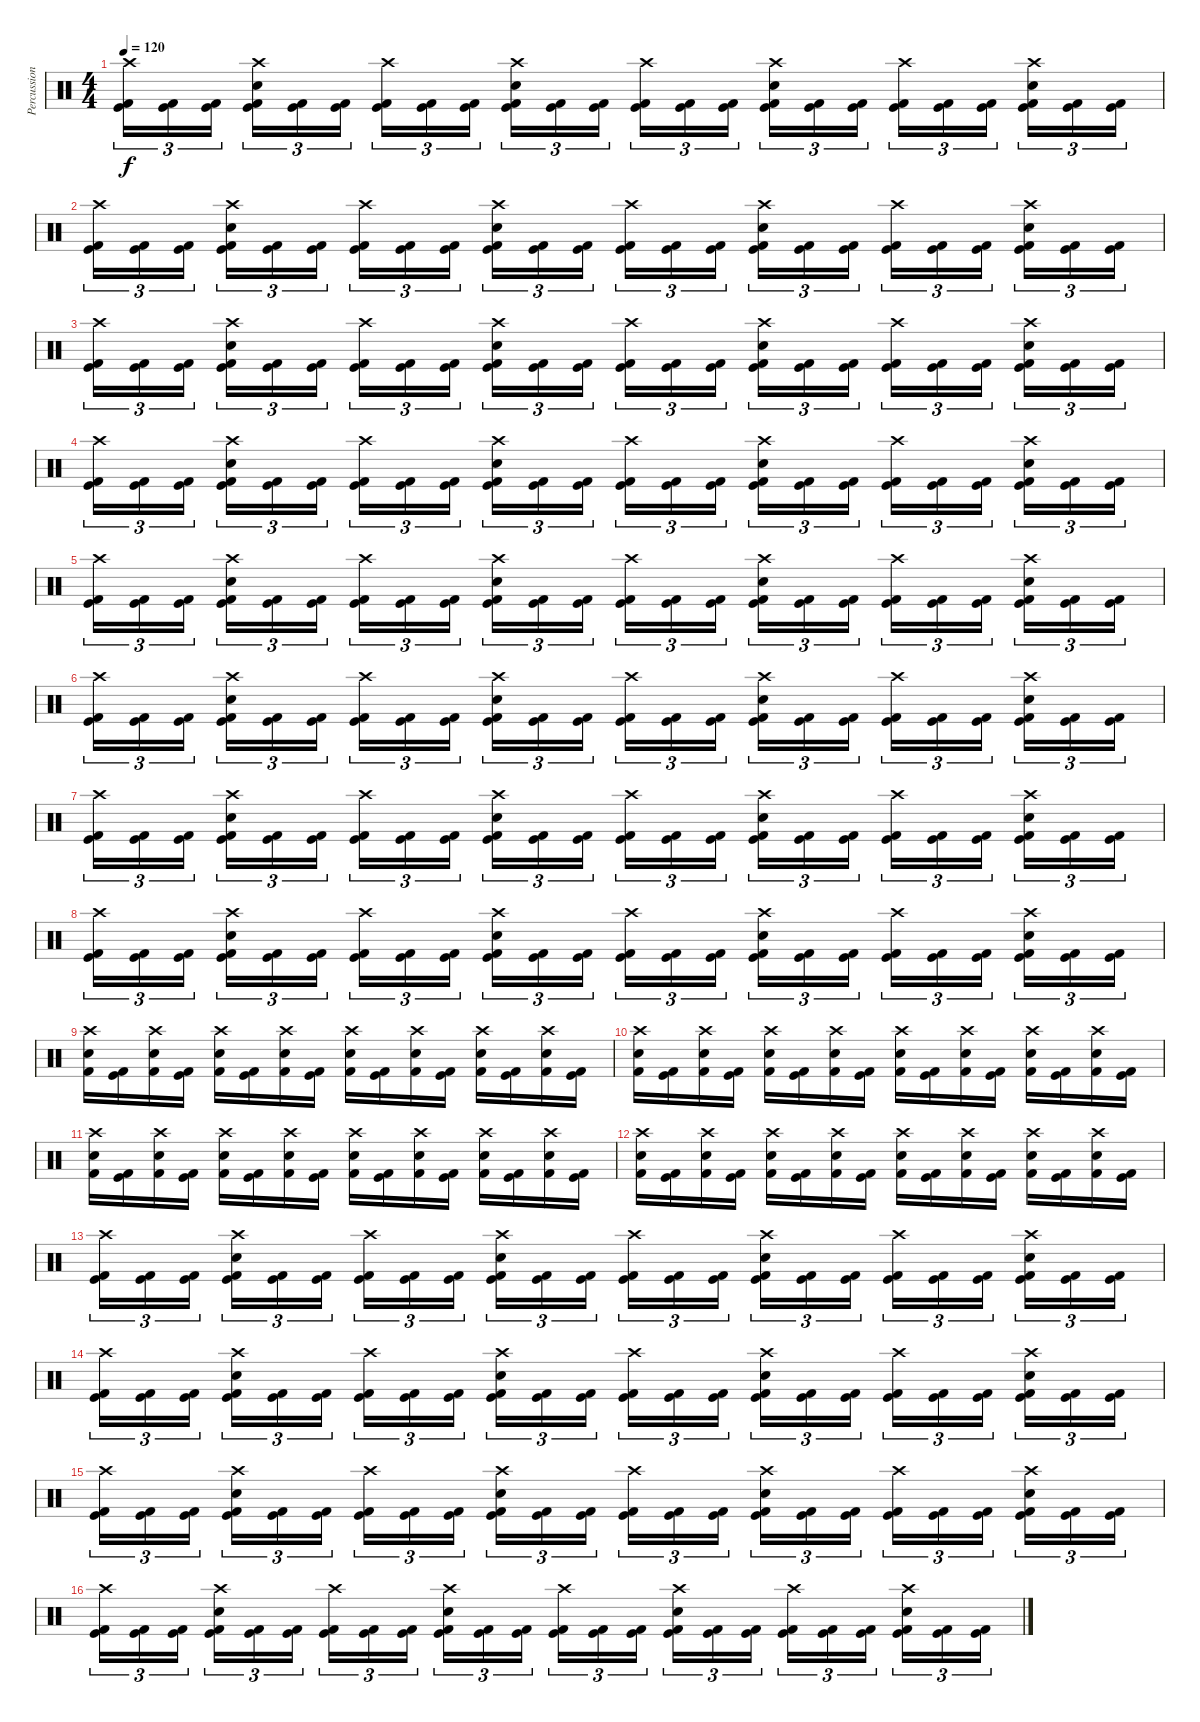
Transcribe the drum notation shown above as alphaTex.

\track ("Percussion" "Percussion") {instrument percussion}
\staff {score}
\articulation defaults
\ts (4 4)
\tempo 120
\clef neutral
\ks c
("Crash high (hit)" "Kick (hit) 2" "Kick (hit)").16{tu (3 2) dy f} ("Kick (hit) 2" "Kick (hit)").16{tu (3 2)} ("Kick (hit) 2" "Kick (hit)").16{tu (3 2) beam splitsecondary} ("Crash high (hit)" "Electric Snare (hit)" "Kick (hit) 2" "Kick (hit)").16{tu (3 2)} ("Kick (hit) 2" "Kick (hit)").16{tu (3 2)} ("Kick (hit) 2" "Kick (hit)").16{tu (3 2)} ("Crash high (hit)" "Kick (hit) 2" "Kick (hit)").16{tu (3 2)} ("Kick (hit) 2" "Kick (hit)").16{tu (3 2)} ("Kick (hit) 2" "Kick (hit)").16{tu (3 2) beam splitsecondary} ("Crash high (hit)" "Electric Snare (hit)" "Kick (hit) 2" "Kick (hit)").16{tu (3 2)} ("Kick (hit) 2" "Kick (hit)").16{tu (3 2)} ("Kick (hit) 2" "Kick (hit)").16{tu (3 2)} ("Crash high (hit)" "Kick (hit) 2" "Kick (hit)").16{tu (3 2)} ("Kick (hit) 2" "Kick (hit)").16{tu (3 2)} ("Kick (hit) 2" "Kick (hit)").16{tu (3 2) beam splitsecondary} ("Crash high (hit)" "Electric Snare (hit)" "Kick (hit) 2" "Kick (hit)").16{tu (3 2)} ("Kick (hit) 2" "Kick (hit)").16{tu (3 2)} ("Kick (hit) 2" "Kick (hit)").16{tu (3 2)} ("Crash high (hit)" "Kick (hit) 2" "Kick (hit)").16{tu (3 2)} ("Kick (hit) 2" "Kick (hit)").16{tu (3 2)} ("Kick (hit) 2" "Kick (hit)").16{tu (3 2) beam splitsecondary} ("Crash high (hit)" "Electric Snare (hit)" "Kick (hit) 2" "Kick (hit)").16{tu (3 2)} ("Kick (hit) 2" "Kick (hit)").16{tu (3 2)} ("Kick (hit) 2" "Kick (hit)").16{tu (3 2)} |
("Crash high (hit)" "Kick (hit) 2" "Kick (hit)").16{tu (3 2)} ("Kick (hit) 2" "Kick (hit)").16{tu (3 2)} ("Kick (hit) 2" "Kick (hit)").16{tu (3 2) beam splitsecondary} ("Crash high (hit)" "Electric Snare (hit)" "Kick (hit) 2" "Kick (hit)").16{tu (3 2)} ("Kick (hit) 2" "Kick (hit)").16{tu (3 2)} ("Kick (hit) 2" "Kick (hit)").16{tu (3 2)} ("Crash high (hit)" "Kick (hit) 2" "Kick (hit)").16{tu (3 2)} ("Kick (hit) 2" "Kick (hit)").16{tu (3 2)} ("Kick (hit) 2" "Kick (hit)").16{tu (3 2) beam splitsecondary} ("Crash high (hit)" "Electric Snare (hit)" "Kick (hit) 2" "Kick (hit)").16{tu (3 2)} ("Kick (hit) 2" "Kick (hit)").16{tu (3 2)} ("Kick (hit) 2" "Kick (hit)").16{tu (3 2)} ("Crash high (hit)" "Kick (hit) 2" "Kick (hit)").16{tu (3 2)} ("Kick (hit) 2" "Kick (hit)").16{tu (3 2)} ("Kick (hit) 2" "Kick (hit)").16{tu (3 2) beam splitsecondary} ("Crash high (hit)" "Electric Snare (hit)" "Kick (hit) 2" "Kick (hit)").16{tu (3 2)} ("Kick (hit) 2" "Kick (hit)").16{tu (3 2)} ("Kick (hit) 2" "Kick (hit)").16{tu (3 2)} ("Crash high (hit)" "Kick (hit) 2" "Kick (hit)").16{tu (3 2)} ("Kick (hit) 2" "Kick (hit)").16{tu (3 2)} ("Kick (hit) 2" "Kick (hit)").16{tu (3 2) beam splitsecondary} ("Crash high (hit)" "Electric Snare (hit)" "Kick (hit) 2" "Kick (hit)").16{tu (3 2)} ("Kick (hit) 2" "Kick (hit)").16{tu (3 2)} ("Kick (hit) 2" "Kick (hit)").16{tu (3 2)} |
("Crash high (hit)" "Kick (hit) 2" "Kick (hit)").16{tu (3 2)} ("Kick (hit) 2" "Kick (hit)").16{tu (3 2)} ("Kick (hit) 2" "Kick (hit)").16{tu (3 2) beam splitsecondary} ("Crash high (hit)" "Electric Snare (hit)" "Kick (hit) 2" "Kick (hit)").16{tu (3 2)} ("Kick (hit) 2" "Kick (hit)").16{tu (3 2)} ("Kick (hit) 2" "Kick (hit)").16{tu (3 2)} ("Crash high (hit)" "Kick (hit) 2" "Kick (hit)").16{tu (3 2)} ("Kick (hit) 2" "Kick (hit)").16{tu (3 2)} ("Kick (hit) 2" "Kick (hit)").16{tu (3 2) beam splitsecondary} ("Crash high (hit)" "Electric Snare (hit)" "Kick (hit) 2" "Kick (hit)").16{tu (3 2)} ("Kick (hit) 2" "Kick (hit)").16{tu (3 2)} ("Kick (hit) 2" "Kick (hit)").16{tu (3 2)} ("Crash high (hit)" "Kick (hit) 2" "Kick (hit)").16{tu (3 2)} ("Kick (hit) 2" "Kick (hit)").16{tu (3 2)} ("Kick (hit) 2" "Kick (hit)").16{tu (3 2) beam splitsecondary} ("Crash high (hit)" "Electric Snare (hit)" "Kick (hit) 2" "Kick (hit)").16{tu (3 2)} ("Kick (hit) 2" "Kick (hit)").16{tu (3 2)} ("Kick (hit) 2" "Kick (hit)").16{tu (3 2)} ("Crash high (hit)" "Kick (hit) 2" "Kick (hit)").16{tu (3 2)} ("Kick (hit) 2" "Kick (hit)").16{tu (3 2)} ("Kick (hit) 2" "Kick (hit)").16{tu (3 2) beam splitsecondary} ("Crash high (hit)" "Electric Snare (hit)" "Kick (hit) 2" "Kick (hit)").16{tu (3 2)} ("Kick (hit) 2" "Kick (hit)").16{tu (3 2)} ("Kick (hit) 2" "Kick (hit)").16{tu (3 2)} |
("Crash high (hit)" "Kick (hit) 2" "Kick (hit)").16{tu (3 2)} ("Kick (hit) 2" "Kick (hit)").16{tu (3 2)} ("Kick (hit) 2" "Kick (hit)").16{tu (3 2) beam splitsecondary} ("Crash high (hit)" "Electric Snare (hit)" "Kick (hit) 2" "Kick (hit)").16{tu (3 2)} ("Kick (hit) 2" "Kick (hit)").16{tu (3 2)} ("Kick (hit) 2" "Kick (hit)").16{tu (3 2)} ("Crash high (hit)" "Kick (hit) 2" "Kick (hit)").16{tu (3 2)} ("Kick (hit) 2" "Kick (hit)").16{tu (3 2)} ("Kick (hit) 2" "Kick (hit)").16{tu (3 2) beam splitsecondary} ("Crash high (hit)" "Electric Snare (hit)" "Kick (hit) 2" "Kick (hit)").16{tu (3 2)} ("Kick (hit) 2" "Kick (hit)").16{tu (3 2)} ("Kick (hit) 2" "Kick (hit)").16{tu (3 2)} ("Crash high (hit)" "Kick (hit) 2" "Kick (hit)").16{tu (3 2)} ("Kick (hit) 2" "Kick (hit)").16{tu (3 2)} ("Kick (hit) 2" "Kick (hit)").16{tu (3 2) beam splitsecondary} ("Crash high (hit)" "Electric Snare (hit)" "Kick (hit) 2" "Kick (hit)").16{tu (3 2)} ("Kick (hit) 2" "Kick (hit)").16{tu (3 2)} ("Kick (hit) 2" "Kick (hit)").16{tu (3 2)} ("Crash high (hit)" "Kick (hit) 2" "Kick (hit)").16{tu (3 2)} ("Kick (hit) 2" "Kick (hit)").16{tu (3 2)} ("Kick (hit) 2" "Kick (hit)").16{tu (3 2) beam splitsecondary} ("Crash high (hit)" "Electric Snare (hit)" "Kick (hit) 2" "Kick (hit)").16{tu (3 2)} ("Kick (hit) 2" "Kick (hit)").16{tu (3 2)} ("Kick (hit) 2" "Kick (hit)").16{tu (3 2)} |
("Crash high (hit)" "Kick (hit) 2" "Kick (hit)").16{tu (3 2)} ("Kick (hit) 2" "Kick (hit)").16{tu (3 2)} ("Kick (hit) 2" "Kick (hit)").16{tu (3 2) beam splitsecondary} ("Crash high (hit)" "Electric Snare (hit)" "Kick (hit) 2" "Kick (hit)").16{tu (3 2)} ("Kick (hit) 2" "Kick (hit)").16{tu (3 2)} ("Kick (hit) 2" "Kick (hit)").16{tu (3 2)} ("Crash high (hit)" "Kick (hit) 2" "Kick (hit)").16{tu (3 2)} ("Kick (hit) 2" "Kick (hit)").16{tu (3 2)} ("Kick (hit) 2" "Kick (hit)").16{tu (3 2) beam splitsecondary} ("Crash high (hit)" "Electric Snare (hit)" "Kick (hit) 2" "Kick (hit)").16{tu (3 2)} ("Kick (hit) 2" "Kick (hit)").16{tu (3 2)} ("Kick (hit) 2" "Kick (hit)").16{tu (3 2)} ("Crash high (hit)" "Kick (hit) 2" "Kick (hit)").16{tu (3 2)} ("Kick (hit) 2" "Kick (hit)").16{tu (3 2)} ("Kick (hit) 2" "Kick (hit)").16{tu (3 2) beam splitsecondary} ("Crash high (hit)" "Electric Snare (hit)" "Kick (hit) 2" "Kick (hit)").16{tu (3 2)} ("Kick (hit) 2" "Kick (hit)").16{tu (3 2)} ("Kick (hit) 2" "Kick (hit)").16{tu (3 2)} ("Crash high (hit)" "Kick (hit) 2" "Kick (hit)").16{tu (3 2)} ("Kick (hit) 2" "Kick (hit)").16{tu (3 2)} ("Kick (hit) 2" "Kick (hit)").16{tu (3 2) beam splitsecondary} ("Crash high (hit)" "Electric Snare (hit)" "Kick (hit) 2" "Kick (hit)").16{tu (3 2)} ("Kick (hit) 2" "Kick (hit)").16{tu (3 2)} ("Kick (hit) 2" "Kick (hit)").16{tu (3 2)} |
("Crash high (hit)" "Kick (hit) 2" "Kick (hit)").16{tu (3 2)} ("Kick (hit) 2" "Kick (hit)").16{tu (3 2)} ("Kick (hit) 2" "Kick (hit)").16{tu (3 2) beam splitsecondary} ("Crash high (hit)" "Electric Snare (hit)" "Kick (hit) 2" "Kick (hit)").16{tu (3 2)} ("Kick (hit) 2" "Kick (hit)").16{tu (3 2)} ("Kick (hit) 2" "Kick (hit)").16{tu (3 2)} ("Crash high (hit)" "Kick (hit) 2" "Kick (hit)").16{tu (3 2)} ("Kick (hit) 2" "Kick (hit)").16{tu (3 2)} ("Kick (hit) 2" "Kick (hit)").16{tu (3 2) beam splitsecondary} ("Crash high (hit)" "Electric Snare (hit)" "Kick (hit) 2" "Kick (hit)").16{tu (3 2)} ("Kick (hit) 2" "Kick (hit)").16{tu (3 2)} ("Kick (hit) 2" "Kick (hit)").16{tu (3 2)} ("Crash high (hit)" "Kick (hit) 2" "Kick (hit)").16{tu (3 2)} ("Kick (hit) 2" "Kick (hit)").16{tu (3 2)} ("Kick (hit) 2" "Kick (hit)").16{tu (3 2) beam splitsecondary} ("Crash high (hit)" "Electric Snare (hit)" "Kick (hit) 2" "Kick (hit)").16{tu (3 2)} ("Kick (hit) 2" "Kick (hit)").16{tu (3 2)} ("Kick (hit) 2" "Kick (hit)").16{tu (3 2)} ("Crash high (hit)" "Kick (hit) 2" "Kick (hit)").16{tu (3 2)} ("Kick (hit) 2" "Kick (hit)").16{tu (3 2)} ("Kick (hit) 2" "Kick (hit)").16{tu (3 2) beam splitsecondary} ("Crash high (hit)" "Electric Snare (hit)" "Kick (hit) 2" "Kick (hit)").16{tu (3 2)} ("Kick (hit) 2" "Kick (hit)").16{tu (3 2)} ("Kick (hit) 2" "Kick (hit)").16{tu (3 2)} |
("Crash high (hit)" "Kick (hit) 2" "Kick (hit)").16{tu (3 2)} ("Kick (hit) 2" "Kick (hit)").16{tu (3 2)} ("Kick (hit) 2" "Kick (hit)").16{tu (3 2) beam splitsecondary} ("Crash high (hit)" "Electric Snare (hit)" "Kick (hit) 2" "Kick (hit)").16{tu (3 2)} ("Kick (hit) 2" "Kick (hit)").16{tu (3 2)} ("Kick (hit) 2" "Kick (hit)").16{tu (3 2)} ("Crash high (hit)" "Kick (hit) 2" "Kick (hit)").16{tu (3 2)} ("Kick (hit) 2" "Kick (hit)").16{tu (3 2)} ("Kick (hit) 2" "Kick (hit)").16{tu (3 2) beam splitsecondary} ("Crash high (hit)" "Electric Snare (hit)" "Kick (hit) 2" "Kick (hit)").16{tu (3 2)} ("Kick (hit) 2" "Kick (hit)").16{tu (3 2)} ("Kick (hit) 2" "Kick (hit)").16{tu (3 2)} ("Crash high (hit)" "Kick (hit) 2" "Kick (hit)").16{tu (3 2)} ("Kick (hit) 2" "Kick (hit)").16{tu (3 2)} ("Kick (hit) 2" "Kick (hit)").16{tu (3 2) beam splitsecondary} ("Crash high (hit)" "Electric Snare (hit)" "Kick (hit) 2" "Kick (hit)").16{tu (3 2)} ("Kick (hit) 2" "Kick (hit)").16{tu (3 2)} ("Kick (hit) 2" "Kick (hit)").16{tu (3 2)} ("Crash high (hit)" "Kick (hit) 2" "Kick (hit)").16{tu (3 2)} ("Kick (hit) 2" "Kick (hit)").16{tu (3 2)} ("Kick (hit) 2" "Kick (hit)").16{tu (3 2) beam splitsecondary} ("Crash high (hit)" "Electric Snare (hit)" "Kick (hit) 2" "Kick (hit)").16{tu (3 2)} ("Kick (hit) 2" "Kick (hit)").16{tu (3 2)} ("Kick (hit) 2" "Kick (hit)").16{tu (3 2)} |
("Crash high (hit)" "Kick (hit) 2" "Kick (hit)").16{tu (3 2)} ("Kick (hit) 2" "Kick (hit)").16{tu (3 2)} ("Kick (hit) 2" "Kick (hit)").16{tu (3 2) beam splitsecondary} ("Crash high (hit)" "Electric Snare (hit)" "Kick (hit) 2" "Kick (hit)").16{tu (3 2)} ("Kick (hit) 2" "Kick (hit)").16{tu (3 2)} ("Kick (hit) 2" "Kick (hit)").16{tu (3 2)} ("Crash high (hit)" "Kick (hit) 2" "Kick (hit)").16{tu (3 2)} ("Kick (hit) 2" "Kick (hit)").16{tu (3 2)} ("Kick (hit) 2" "Kick (hit)").16{tu (3 2) beam splitsecondary} ("Crash high (hit)" "Electric Snare (hit)" "Kick (hit) 2" "Kick (hit)").16{tu (3 2)} ("Kick (hit) 2" "Kick (hit)").16{tu (3 2)} ("Kick (hit) 2" "Kick (hit)").16{tu (3 2)} ("Crash high (hit)" "Kick (hit) 2" "Kick (hit)").16{tu (3 2)} ("Kick (hit) 2" "Kick (hit)").16{tu (3 2)} ("Kick (hit) 2" "Kick (hit)").16{tu (3 2) beam splitsecondary} ("Crash high (hit)" "Electric Snare (hit)" "Kick (hit) 2" "Kick (hit)").16{tu (3 2)} ("Kick (hit) 2" "Kick (hit)").16{tu (3 2)} ("Kick (hit) 2" "Kick (hit)").16{tu (3 2)} ("Crash high (hit)" "Kick (hit) 2" "Kick (hit)").16{tu (3 2)} ("Kick (hit) 2" "Kick (hit)").16{tu (3 2)} ("Kick (hit) 2" "Kick (hit)").16{tu (3 2) beam splitsecondary} ("Crash high (hit)" "Electric Snare (hit)" "Kick (hit) 2" "Kick (hit)").16{tu (3 2)} ("Kick (hit) 2" "Kick (hit)").16{tu (3 2)} ("Kick (hit) 2" "Kick (hit)").16{tu (3 2)} |
("Electric Snare (hit)" "Kick (hit) 2" "Crash high (hit)").16 ("Kick (hit)" "Kick (hit) 2").16 ("Electric Snare (hit)" "Kick (hit) 2" "Crash high (hit)").16 ("Kick (hit)" "Kick (hit) 2").16 ("Electric Snare (hit)" "Kick (hit) 2" "Crash high (hit)").16 ("Kick (hit)" "Kick (hit) 2").16 ("Electric Snare (hit)" "Kick (hit) 2" "Crash high (hit)").16 ("Kick (hit)" "Kick (hit) 2").16 ("Electric Snare (hit)" "Kick (hit) 2" "Crash high (hit)").16 ("Kick (hit)" "Kick (hit) 2").16 ("Electric Snare (hit)" "Kick (hit) 2" "Crash high (hit)").16 ("Kick (hit)" "Kick (hit) 2").16 ("Electric Snare (hit)" "Kick (hit) 2" "Crash high (hit)").16 ("Kick (hit)" "Kick (hit) 2").16 ("Electric Snare (hit)" "Kick (hit) 2" "Crash high (hit)").16 ("Kick (hit)" "Kick (hit) 2").16 |
("Electric Snare (hit)" "Kick (hit) 2" "Crash high (hit)").16 ("Kick (hit)" "Kick (hit) 2").16 ("Electric Snare (hit)" "Kick (hit) 2" "Crash high (hit)").16 ("Kick (hit)" "Kick (hit) 2").16 ("Electric Snare (hit)" "Kick (hit) 2" "Crash high (hit)").16 ("Kick (hit)" "Kick (hit) 2").16 ("Electric Snare (hit)" "Kick (hit) 2" "Crash high (hit)").16 ("Kick (hit)" "Kick (hit) 2").16 ("Electric Snare (hit)" "Kick (hit) 2" "Crash high (hit)").16 ("Kick (hit)" "Kick (hit) 2").16 ("Electric Snare (hit)" "Kick (hit) 2" "Crash high (hit)").16 ("Kick (hit)" "Kick (hit) 2").16 ("Electric Snare (hit)" "Kick (hit) 2" "Crash high (hit)").16 ("Kick (hit)" "Kick (hit) 2").16 ("Electric Snare (hit)" "Kick (hit) 2" "Crash high (hit)").16 ("Kick (hit)" "Kick (hit) 2").16 |
("Electric Snare (hit)" "Kick (hit) 2" "Crash high (hit)").16 ("Kick (hit)" "Kick (hit) 2").16 ("Electric Snare (hit)" "Kick (hit) 2" "Crash high (hit)").16 ("Kick (hit)" "Kick (hit) 2").16 ("Electric Snare (hit)" "Kick (hit) 2" "Crash high (hit)").16 ("Kick (hit)" "Kick (hit) 2").16 ("Electric Snare (hit)" "Kick (hit) 2" "Crash high (hit)").16 ("Kick (hit)" "Kick (hit) 2").16 ("Electric Snare (hit)" "Kick (hit) 2" "Crash high (hit)").16 ("Kick (hit)" "Kick (hit) 2").16 ("Electric Snare (hit)" "Kick (hit) 2" "Crash high (hit)").16 ("Kick (hit)" "Kick (hit) 2").16 ("Electric Snare (hit)" "Kick (hit) 2" "Crash high (hit)").16 ("Kick (hit)" "Kick (hit) 2").16 ("Electric Snare (hit)" "Kick (hit) 2" "Crash high (hit)").16 ("Kick (hit)" "Kick (hit) 2").16 |
("Electric Snare (hit)" "Kick (hit) 2" "Crash high (hit)").16 ("Kick (hit)" "Kick (hit) 2").16 ("Electric Snare (hit)" "Kick (hit) 2" "Crash high (hit)").16 ("Kick (hit)" "Kick (hit) 2").16 ("Electric Snare (hit)" "Kick (hit) 2" "Crash high (hit)").16 ("Kick (hit)" "Kick (hit) 2").16 ("Electric Snare (hit)" "Kick (hit) 2" "Crash high (hit)").16 ("Kick (hit)" "Kick (hit) 2").16 ("Electric Snare (hit)" "Kick (hit) 2" "Crash high (hit)").16 ("Kick (hit)" "Kick (hit) 2").16 ("Electric Snare (hit)" "Kick (hit) 2" "Crash high (hit)").16 ("Kick (hit)" "Kick (hit) 2").16 ("Electric Snare (hit)" "Kick (hit) 2" "Crash high (hit)").16 ("Kick (hit)" "Kick (hit) 2").16 ("Electric Snare (hit)" "Kick (hit) 2" "Crash high (hit)").16 ("Kick (hit)" "Kick (hit) 2").16 |
("Crash high (hit)" "Kick (hit) 2" "Kick (hit)").16{tu (3 2)} ("Kick (hit) 2" "Kick (hit)").16{tu (3 2)} ("Kick (hit) 2" "Kick (hit)").16{tu (3 2) beam splitsecondary} ("Crash high (hit)" "Electric Snare (hit)" "Kick (hit) 2" "Kick (hit)").16{tu (3 2)} ("Kick (hit) 2" "Kick (hit)").16{tu (3 2)} ("Kick (hit) 2" "Kick (hit)").16{tu (3 2)} ("Crash high (hit)" "Kick (hit) 2" "Kick (hit)").16{tu (3 2)} ("Kick (hit) 2" "Kick (hit)").16{tu (3 2)} ("Kick (hit) 2" "Kick (hit)").16{tu (3 2) beam splitsecondary} ("Crash high (hit)" "Electric Snare (hit)" "Kick (hit) 2" "Kick (hit)").16{tu (3 2)} ("Kick (hit) 2" "Kick (hit)").16{tu (3 2)} ("Kick (hit) 2" "Kick (hit)").16{tu (3 2)} ("Crash high (hit)" "Kick (hit) 2" "Kick (hit)").16{tu (3 2)} ("Kick (hit) 2" "Kick (hit)").16{tu (3 2)} ("Kick (hit) 2" "Kick (hit)").16{tu (3 2) beam splitsecondary} ("Crash high (hit)" "Electric Snare (hit)" "Kick (hit) 2" "Kick (hit)").16{tu (3 2)} ("Kick (hit) 2" "Kick (hit)").16{tu (3 2)} ("Kick (hit) 2" "Kick (hit)").16{tu (3 2)} ("Crash high (hit)" "Kick (hit) 2" "Kick (hit)").16{tu (3 2)} ("Kick (hit) 2" "Kick (hit)").16{tu (3 2)} ("Kick (hit) 2" "Kick (hit)").16{tu (3 2) beam splitsecondary} ("Crash high (hit)" "Electric Snare (hit)" "Kick (hit) 2" "Kick (hit)").16{tu (3 2)} ("Kick (hit) 2" "Kick (hit)").16{tu (3 2)} ("Kick (hit) 2" "Kick (hit)").16{tu (3 2)} |
("Crash high (hit)" "Kick (hit) 2" "Kick (hit)").16{tu (3 2)} ("Kick (hit) 2" "Kick (hit)").16{tu (3 2)} ("Kick (hit) 2" "Kick (hit)").16{tu (3 2) beam splitsecondary} ("Crash high (hit)" "Electric Snare (hit)" "Kick (hit) 2" "Kick (hit)").16{tu (3 2)} ("Kick (hit) 2" "Kick (hit)").16{tu (3 2)} ("Kick (hit) 2" "Kick (hit)").16{tu (3 2)} ("Crash high (hit)" "Kick (hit) 2" "Kick (hit)").16{tu (3 2)} ("Kick (hit) 2" "Kick (hit)").16{tu (3 2)} ("Kick (hit) 2" "Kick (hit)").16{tu (3 2) beam splitsecondary} ("Crash high (hit)" "Electric Snare (hit)" "Kick (hit) 2" "Kick (hit)").16{tu (3 2)} ("Kick (hit) 2" "Kick (hit)").16{tu (3 2)} ("Kick (hit) 2" "Kick (hit)").16{tu (3 2)} ("Crash high (hit)" "Kick (hit) 2" "Kick (hit)").16{tu (3 2)} ("Kick (hit) 2" "Kick (hit)").16{tu (3 2)} ("Kick (hit) 2" "Kick (hit)").16{tu (3 2) beam splitsecondary} ("Crash high (hit)" "Electric Snare (hit)" "Kick (hit) 2" "Kick (hit)").16{tu (3 2)} ("Kick (hit) 2" "Kick (hit)").16{tu (3 2)} ("Kick (hit) 2" "Kick (hit)").16{tu (3 2)} ("Crash high (hit)" "Kick (hit) 2" "Kick (hit)").16{tu (3 2)} ("Kick (hit) 2" "Kick (hit)").16{tu (3 2)} ("Kick (hit) 2" "Kick (hit)").16{tu (3 2) beam splitsecondary} ("Crash high (hit)" "Electric Snare (hit)" "Kick (hit) 2" "Kick (hit)").16{tu (3 2)} ("Kick (hit) 2" "Kick (hit)").16{tu (3 2)} ("Kick (hit) 2" "Kick (hit)").16{tu (3 2)} |
("Crash high (hit)" "Kick (hit) 2" "Kick (hit)").16{tu (3 2)} ("Kick (hit) 2" "Kick (hit)").16{tu (3 2)} ("Kick (hit) 2" "Kick (hit)").16{tu (3 2) beam splitsecondary} ("Crash high (hit)" "Electric Snare (hit)" "Kick (hit) 2" "Kick (hit)").16{tu (3 2)} ("Kick (hit) 2" "Kick (hit)").16{tu (3 2)} ("Kick (hit) 2" "Kick (hit)").16{tu (3 2)} ("Crash high (hit)" "Kick (hit) 2" "Kick (hit)").16{tu (3 2)} ("Kick (hit) 2" "Kick (hit)").16{tu (3 2)} ("Kick (hit) 2" "Kick (hit)").16{tu (3 2) beam splitsecondary} ("Crash high (hit)" "Electric Snare (hit)" "Kick (hit) 2" "Kick (hit)").16{tu (3 2)} ("Kick (hit) 2" "Kick (hit)").16{tu (3 2)} ("Kick (hit) 2" "Kick (hit)").16{tu (3 2)} ("Crash high (hit)" "Kick (hit) 2" "Kick (hit)").16{tu (3 2)} ("Kick (hit) 2" "Kick (hit)").16{tu (3 2)} ("Kick (hit) 2" "Kick (hit)").16{tu (3 2) beam splitsecondary} ("Crash high (hit)" "Electric Snare (hit)" "Kick (hit) 2" "Kick (hit)").16{tu (3 2)} ("Kick (hit) 2" "Kick (hit)").16{tu (3 2)} ("Kick (hit) 2" "Kick (hit)").16{tu (3 2)} ("Crash high (hit)" "Kick (hit) 2" "Kick (hit)").16{tu (3 2)} ("Kick (hit) 2" "Kick (hit)").16{tu (3 2)} ("Kick (hit) 2" "Kick (hit)").16{tu (3 2) beam splitsecondary} ("Crash high (hit)" "Electric Snare (hit)" "Kick (hit) 2" "Kick (hit)").16{tu (3 2)} ("Kick (hit) 2" "Kick (hit)").16{tu (3 2)} ("Kick (hit) 2" "Kick (hit)").16{tu (3 2)} |
("Crash high (hit)" "Kick (hit) 2" "Kick (hit)").16{tu (3 2)} ("Kick (hit) 2" "Kick (hit)").16{tu (3 2)} ("Kick (hit) 2" "Kick (hit)").16{tu (3 2) beam splitsecondary} ("Crash high (hit)" "Electric Snare (hit)" "Kick (hit) 2" "Kick (hit)").16{tu (3 2)} ("Kick (hit) 2" "Kick (hit)").16{tu (3 2)} ("Kick (hit) 2" "Kick (hit)").16{tu (3 2)} ("Crash high (hit)" "Kick (hit) 2" "Kick (hit)").16{tu (3 2)} ("Kick (hit) 2" "Kick (hit)").16{tu (3 2)} ("Kick (hit) 2" "Kick (hit)").16{tu (3 2) beam splitsecondary} ("Crash high (hit)" "Electric Snare (hit)" "Kick (hit) 2" "Kick (hit)").16{tu (3 2)} ("Kick (hit) 2" "Kick (hit)").16{tu (3 2)} ("Kick (hit) 2" "Kick (hit)").16{tu (3 2)} ("Crash high (hit)" "Kick (hit) 2" "Kick (hit)").16{tu (3 2)} ("Kick (hit) 2" "Kick (hit)").16{tu (3 2)} ("Kick (hit) 2" "Kick (hit)").16{tu (3 2) beam splitsecondary} ("Crash high (hit)" "Electric Snare (hit)" "Kick (hit) 2" "Kick (hit)").16{tu (3 2)} ("Kick (hit) 2" "Kick (hit)").16{tu (3 2)} ("Kick (hit) 2" "Kick (hit)").16{tu (3 2)} ("Crash high (hit)" "Kick (hit) 2" "Kick (hit)").16{tu (3 2)} ("Kick (hit) 2" "Kick (hit)").16{tu (3 2)} ("Kick (hit) 2" "Kick (hit)").16{tu (3 2) beam splitsecondary} ("Crash high (hit)" "Electric Snare (hit)" "Kick (hit) 2" "Kick (hit)").16{tu (3 2)} ("Kick (hit) 2" "Kick (hit)").16{tu (3 2)} ("Kick (hit) 2" "Kick (hit)").16{tu (3 2)}
